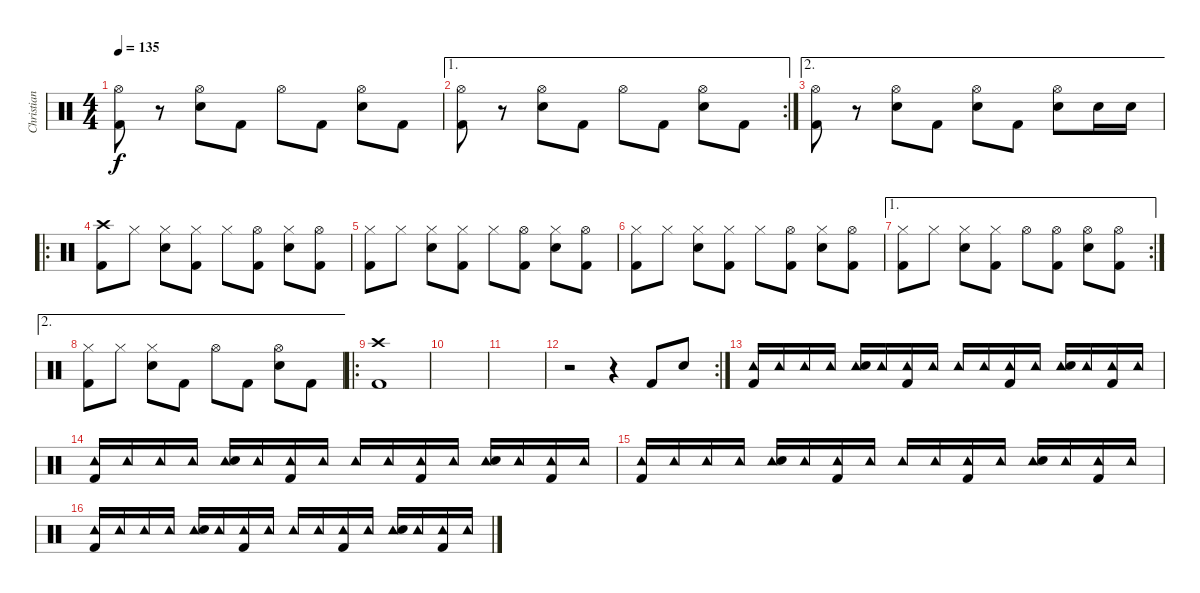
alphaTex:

\track ("Christian" "Christian") {instrument percussion}
\staff {score}
\articulation defaults
\ts (4 4)
\tempo 135
\clef neutral
\ks c
("Hi-Hat (open)" "Kick (hit) 2").8{dy f} r.8 ("Hi-Hat (open)" "Snare (hit) 2").8 "Kick (hit) 2".8 "Hi-Hat (open)".8 "Kick (hit) 2".8 ("Hi-Hat (open)" "Snare (hit) 2").8 "Kick (hit) 2".8 |
\ae 1
\rc 2
("Hi-Hat (open)" "Kick (hit) 2").8 r.8 ("Hi-Hat (open)" "Snare (hit) 2").8 "Kick (hit) 2".8 "Hi-Hat (open)".8 "Kick (hit) 2".8 ("Hi-Hat (open)" "Snare (hit) 2").8 "Kick (hit) 2".8 |
\ae 2
("Hi-Hat (open)" "Kick (hit) 2").8 r.8 ("Hi-Hat (open)" "Snare (hit) 2").8 "Kick (hit) 2".8 ("Hi-Hat (open)" "Snare (hit) 2").8 "Kick (hit) 2".8 ("Hi-Hat (open)" "Snare (hit) 2").8 "Snare (hit) 2".16 "Snare (hit) 2".16 |
\ro
("Crash high (hit)" "Kick (hit) 2").8 "Hi-Hat (closed)".8 ("Hi-Hat (closed)" "Snare (hit) 2").8 ("Hi-Hat (closed)" "Kick (hit) 2").8 "Hi-Hat (closed)".8 ("Hi-Hat (open)" "Kick (hit) 2").8 ("Hi-Hat (closed)" "Snare (hit) 2").8 ("Hi-Hat (open)" "Kick (hit) 2").8 |
("Hi-Hat (closed)" "Kick (hit) 2").8 "Hi-Hat (closed)".8 ("Hi-Hat (closed)" "Snare (hit) 2").8 ("Hi-Hat (closed)" "Kick (hit) 2").8 "Hi-Hat (closed)".8 ("Hi-Hat (open)" "Kick (hit) 2").8 ("Hi-Hat (closed)" "Snare (hit) 2").8 ("Hi-Hat (open)" "Kick (hit) 2").8 |
("Hi-Hat (closed)" "Kick (hit) 2").8 "Hi-Hat (closed)".8 ("Hi-Hat (closed)" "Snare (hit) 2").8 ("Hi-Hat (closed)" "Kick (hit) 2").8 "Hi-Hat (closed)".8 ("Hi-Hat (open)" "Kick (hit) 2").8 ("Hi-Hat (closed)" "Snare (hit) 2").8 ("Hi-Hat (open)" "Kick (hit) 2").8 |
\ae 1
\rc 2
("Hi-Hat (closed)" "Kick (hit) 2").8 "Hi-Hat (closed)".8 ("Hi-Hat (closed)" "Snare (hit) 2").8 ("Hi-Hat (closed)" "Kick (hit) 2").8 "Hi-Hat (open)".8 ("Hi-Hat (open)" "Kick (hit) 2").8 ("Hi-Hat (open)" "Snare (hit) 2").8 ("Hi-Hat (open)" "Kick (hit) 2").8 |
\ae 2
("Hi-Hat (closed)" "Kick (hit) 2").8 "Hi-Hat (closed)".8 ("Hi-Hat (closed)" "Snare (hit) 2").8 "Kick (hit) 2".8 "Hi-Hat (open)".8 "Kick (hit) 2".8 ("Hi-Hat (open)" "Snare (hit) 2").8 "Kick (hit) 2".8 |
\ro
("Crash high (hit)" "Kick (hit) 2").1 |
|
|
\rc 2
r.2 r.4 "Kick (hit) 2".8 "Snare (hit) 2".8 |
("Tambourine (hit)" "Kick (hit) 2").16 "Tambourine (hit)".16 "Tambourine (hit)".16 "Tambourine (hit)".16 ("Tambourine (hit)" "Snare (hit) 2").16 "Tambourine (hit)".16 ("Tambourine (hit)" "Kick (hit) 2").16 "Tambourine (hit)".16 "Tambourine (hit)".16 "Tambourine (hit)".16 ("Tambourine (hit)" "Kick (hit) 2").16 "Tambourine (hit)".16 ("Tambourine (hit)" "Snare (hit) 2").16 "Tambourine (hit)".16 ("Tambourine (hit)" "Kick (hit) 2").16 "Tambourine (hit)".16 |
("Tambourine (hit)" "Kick (hit) 2").16 "Tambourine (hit)".16 "Tambourine (hit)".16 "Tambourine (hit)".16 ("Tambourine (hit)" "Snare (hit) 2").16 "Tambourine (hit)".16 ("Tambourine (hit)" "Kick (hit) 2").16 "Tambourine (hit)".16 "Tambourine (hit)".16 "Tambourine (hit)".16 ("Tambourine (hit)" "Kick (hit) 2").16 "Tambourine (hit)".16 ("Tambourine (hit)" "Snare (hit) 2").16 "Tambourine (hit)".16 ("Tambourine (hit)" "Kick (hit) 2").16 "Tambourine (hit)".16 |
("Tambourine (hit)" "Kick (hit) 2").16 "Tambourine (hit)".16 "Tambourine (hit)".16 "Tambourine (hit)".16 ("Tambourine (hit)" "Snare (hit) 2").16 "Tambourine (hit)".16 ("Tambourine (hit)" "Kick (hit) 2").16 "Tambourine (hit)".16 "Tambourine (hit)".16 "Tambourine (hit)".16 ("Tambourine (hit)" "Kick (hit) 2").16 "Tambourine (hit)".16 ("Tambourine (hit)" "Snare (hit) 2").16 "Tambourine (hit)".16 ("Tambourine (hit)" "Kick (hit) 2").16 "Tambourine (hit)".16 |
("Tambourine (hit)" "Kick (hit) 2").16 "Tambourine (hit)".16 "Tambourine (hit)".16 "Tambourine (hit)".16 ("Tambourine (hit)" "Snare (hit) 2").16 "Tambourine (hit)".16 ("Tambourine (hit)" "Kick (hit) 2").16 "Tambourine (hit)".16 "Tambourine (hit)".16 "Tambourine (hit)".16 ("Tambourine (hit)" "Kick (hit) 2").16 "Tambourine (hit)".16 ("Tambourine (hit)" "Snare (hit) 2").16 "Tambourine (hit)".16 ("Tambourine (hit)" "Kick (hit) 2").16 "Tambourine (hit)".16
